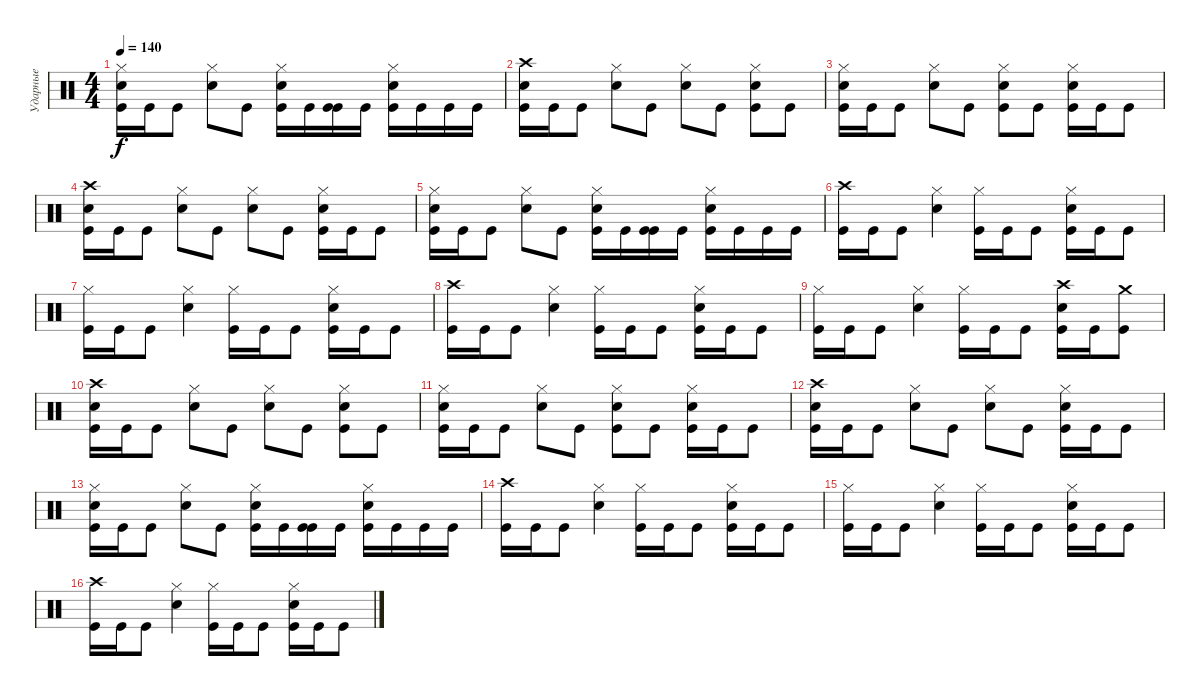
\track ("Ударные" "Ударные") {instrument percussion}
\staff {score}
\articulation defaults
\ts (4 4)
\tempo 140
\clef neutral
\ks c
("Hi-Hat (closed)" "Electric Snare (hit)" "Kick (hit)").16{dy f} "Kick (hit)".16 "Kick (hit)".8 ("Hi-Hat (closed)" "Electric Snare (hit)").8 "Kick (hit)".8 ("Hi-Hat (closed)" "Electric Snare (hit)" "Kick (hit)").16 "Kick (hit)".16 ("Kick (hit)" "Kick (hit)").16 "Kick (hit)".16 ("Hi-Hat (closed)" "Electric Snare (hit)" "Kick (hit)").16 "Kick (hit)".16 "Kick (hit)".16 "Kick (hit)".16 |
("Crash high (hit)" "Electric Snare (hit)" "Kick (hit)").16 "Kick (hit)".16 "Kick (hit)".8 ("Hi-Hat (closed)" "Electric Snare (hit)").8 "Kick (hit)".8 ("Hi-Hat (closed)" "Electric Snare (hit)").8 "Kick (hit)".8 ("Hi-Hat (closed)" "Electric Snare (hit)" "Kick (hit)").8 "Kick (hit)".8 |
("Hi-Hat (closed)" "Electric Snare (hit)" "Kick (hit)").16 "Kick (hit)".16 "Kick (hit)".8 ("Hi-Hat (closed)" "Electric Snare (hit)").8 "Kick (hit)".8 ("Hi-Hat (closed)" "Electric Snare (hit)" "Kick (hit)").8 "Kick (hit)".8 ("Hi-Hat (closed)" "Electric Snare (hit)" "Kick (hit)").16 "Kick (hit)".16 "Kick (hit)".8 |
("Crash high (hit)" "Electric Snare (hit)" "Kick (hit)").16 "Kick (hit)".16 "Kick (hit)".8 ("Hi-Hat (closed)" "Electric Snare (hit)").8 "Kick (hit)".8 ("Hi-Hat (closed)" "Electric Snare (hit)").8 "Kick (hit)".8 ("Hi-Hat (closed)" "Electric Snare (hit)" "Kick (hit)").16 "Kick (hit)".16 "Kick (hit)".8 |
("Hi-Hat (closed)" "Electric Snare (hit)" "Kick (hit)").16 "Kick (hit)".16 "Kick (hit)".8 ("Hi-Hat (closed)" "Electric Snare (hit)").8 "Kick (hit)".8 ("Hi-Hat (closed)" "Electric Snare (hit)" "Kick (hit)").16 "Kick (hit)".16 ("Kick (hit)" "Kick (hit)").16 "Kick (hit)".16 ("Hi-Hat (closed)" "Electric Snare (hit)" "Kick (hit)").16 "Kick (hit)".16 "Kick (hit)".16 "Kick (hit)".16 |
("Crash high (hit)" "Kick (hit)").16 "Kick (hit)".16 "Kick (hit)".8 ("Hi-Hat (closed)" "Electric Snare (hit)").4 ("Hi-Hat (closed)" "Kick (hit)").16 "Kick (hit)".16 "Kick (hit)".8 ("Hi-Hat (closed)" "Electric Snare (hit)" "Kick (hit)").16 "Kick (hit)".16 "Kick (hit)".8 |
("Hi-Hat (closed)" "Kick (hit)").16 "Kick (hit)".16 "Kick (hit)".8 ("Hi-Hat (closed)" "Electric Snare (hit)").4 ("Hi-Hat (closed)" "Kick (hit)").16 "Kick (hit)".16 "Kick (hit)".8 ("Hi-Hat (closed)" "Electric Snare (hit)" "Kick (hit)").16 "Kick (hit)".16 "Kick (hit)".8 |
("Crash high (hit)" "Kick (hit)").16 "Kick (hit)".16 "Kick (hit)".8 ("Hi-Hat (closed)" "Electric Snare (hit)").4 ("Hi-Hat (closed)" "Kick (hit)").16 "Kick (hit)".16 "Kick (hit)".8 ("Hi-Hat (closed)" "Electric Snare (hit)" "Kick (hit)").16 "Kick (hit)".16 "Kick (hit)".8 |
("Hi-Hat (closed)" "Kick (hit)").16 "Kick (hit)".16 "Kick (hit)".8 ("Hi-Hat (closed)" "Electric Snare (hit)").4 ("Hi-Hat (closed)" "Kick (hit)").16 "Kick (hit)".16 "Kick (hit)".8 ("Crash high (hit)" "Electric Snare (hit)" "Kick (hit)").16 "Kick (hit)".16 ("Crash medium (hit)" "Kick (hit)").8 |
("Crash high (hit)" "Electric Snare (hit)" "Kick (hit)").16 "Kick (hit)".16 "Kick (hit)".8 ("Hi-Hat (closed)" "Electric Snare (hit)").8 "Kick (hit)".8 ("Hi-Hat (closed)" "Electric Snare (hit)").8 "Kick (hit)".8 ("Hi-Hat (closed)" "Electric Snare (hit)" "Kick (hit)").8 "Kick (hit)".8 |
("Hi-Hat (closed)" "Electric Snare (hit)" "Kick (hit)").16 "Kick (hit)".16 "Kick (hit)".8 ("Hi-Hat (closed)" "Electric Snare (hit)").8 "Kick (hit)".8 ("Hi-Hat (closed)" "Electric Snare (hit)" "Kick (hit)").8 "Kick (hit)".8 ("Hi-Hat (closed)" "Electric Snare (hit)" "Kick (hit)").16 "Kick (hit)".16 "Kick (hit)".8 |
("Crash high (hit)" "Electric Snare (hit)" "Kick (hit)").16 "Kick (hit)".16 "Kick (hit)".8 ("Hi-Hat (closed)" "Electric Snare (hit)").8 "Kick (hit)".8 ("Hi-Hat (closed)" "Electric Snare (hit)").8 "Kick (hit)".8 ("Hi-Hat (closed)" "Electric Snare (hit)" "Kick (hit)").16 "Kick (hit)".16 "Kick (hit)".8 |
("Hi-Hat (closed)" "Electric Snare (hit)" "Kick (hit)").16 "Kick (hit)".16 "Kick (hit)".8 ("Hi-Hat (closed)" "Electric Snare (hit)").8 "Kick (hit)".8 ("Hi-Hat (closed)" "Electric Snare (hit)" "Kick (hit)").16 "Kick (hit)".16 ("Kick (hit)" "Kick (hit)").16 "Kick (hit)".16 ("Hi-Hat (closed)" "Electric Snare (hit)" "Kick (hit)").16 "Kick (hit)".16 "Kick (hit)".16 "Kick (hit)".16 |
("Crash high (hit)" "Kick (hit)").16 "Kick (hit)".16 "Kick (hit)".8 ("Hi-Hat (closed)" "Electric Snare (hit)").4 ("Hi-Hat (closed)" "Kick (hit)").16 "Kick (hit)".16 "Kick (hit)".8 ("Hi-Hat (closed)" "Electric Snare (hit)" "Kick (hit)").16 "Kick (hit)".16 "Kick (hit)".8 |
("Hi-Hat (closed)" "Kick (hit)").16 "Kick (hit)".16 "Kick (hit)".8 ("Hi-Hat (closed)" "Electric Snare (hit)").4 ("Hi-Hat (closed)" "Kick (hit)").16 "Kick (hit)".16 "Kick (hit)".8 ("Hi-Hat (closed)" "Electric Snare (hit)" "Kick (hit)").16 "Kick (hit)".16 "Kick (hit)".8 |
("Crash high (hit)" "Kick (hit)").16 "Kick (hit)".16 "Kick (hit)".8 ("Hi-Hat (closed)" "Electric Snare (hit)").4 ("Hi-Hat (closed)" "Kick (hit)").16 "Kick (hit)".16 "Kick (hit)".8 ("Hi-Hat (closed)" "Electric Snare (hit)" "Kick (hit)").16 "Kick (hit)".16 "Kick (hit)".8
